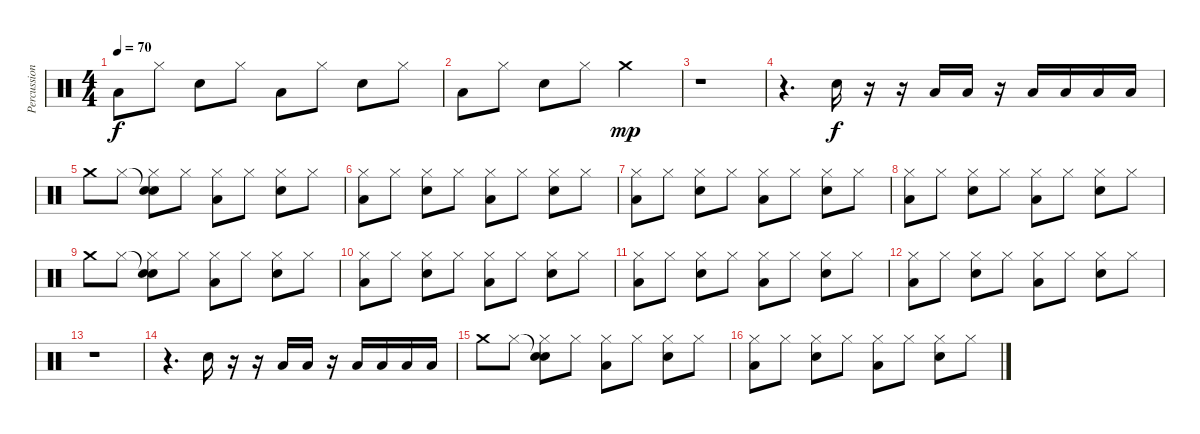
\track ("Percussion" "Percussion") {instrument percussion}
\staff {score}
\articulation defaults
\ts (4 4)
\tempo 70
\clef neutral
\ks c "Low Floor Tom (hit)".8{dy f} "Hi-Hat (closed)".8 "Snare (hit) 2".8 "Hi-Hat (closed)".8 "Low Floor Tom (hit)".8 "Hi-Hat (closed)".8 "Snare (hit) 2".8 "Hi-Hat (closed)".8
|
"Low Floor Tom (hit)".8 "Hi-Hat (closed)".8 "Snare (hit) 2".8 "Hi-Hat (closed)".8 "Crash medium (hit)".2{dy mp} |
r.1 |
r.4{d} "Snare (hit) 2".16{dy f} r.16 r.16 "Low Floor Tom (hit)".16 "Low Floor Tom (hit)".16 r.16 "Low Floor Tom (hit)".16 "Low Floor Tom (hit)".16 "Low Floor Tom (hit)".16 "Low Floor Tom (hit)".16 |
"Crash medium (hit)".8 "Hi-Hat (closed)".8 ("Snare (hit) 2"{t} "Hi-Hat (closed)" "Snare (hit) 2").8 "Hi-Hat (closed)".8 ("Hi-Hat (closed)" "Low Floor Tom (hit)").8 "Hi-Hat (closed)".8 ("Hi-Hat (closed)" "Snare (hit) 2").8 "Hi-Hat (closed)".8 |
("Low Floor Tom (hit)" "Hi-Hat (closed)").8 "Hi-Hat (closed)".8 ("Snare (hit) 2" "Hi-Hat (closed)").8 "Hi-Hat (closed)".8 ("Low Floor Tom (hit)" "Hi-Hat (closed)").8 "Hi-Hat (closed)".8 ("Snare (hit) 2" "Hi-Hat (closed)").8 "Hi-Hat (closed)".8 |
("Low Floor Tom (hit)" "Hi-Hat (closed)").8 "Hi-Hat (closed)".8 ("Snare (hit) 2" "Hi-Hat (closed)").8 "Hi-Hat (closed)".8 ("Low Floor Tom (hit)" "Hi-Hat (closed)").8 "Hi-Hat (closed)".8 ("Snare (hit) 2" "Hi-Hat (closed)").8 "Hi-Hat (closed)".8 |
("Low Floor Tom (hit)" "Hi-Hat (closed)").8 "Hi-Hat (closed)".8 ("Snare (hit) 2" "Hi-Hat (closed)").8 "Hi-Hat (closed)".8 ("Low Floor Tom (hit)" "Hi-Hat (closed)").8 "Hi-Hat (closed)".8 ("Snare (hit) 2" "Hi-Hat (closed)").8 "Hi-Hat (closed)".8 |
"Crash medium (hit)".8 "Hi-Hat (closed)".8 ("Snare (hit) 2"{t} "Hi-Hat (closed)" "Snare (hit) 2").8 "Hi-Hat (closed)".8 ("Hi-Hat (closed)" "Low Floor Tom (hit)").8 "Hi-Hat (closed)".8 ("Hi-Hat (closed)" "Snare (hit) 2").8 "Hi-Hat (closed)".8 |
("Low Floor Tom (hit)" "Hi-Hat (closed)").8 "Hi-Hat (closed)".8 ("Snare (hit) 2" "Hi-Hat (closed)").8 "Hi-Hat (closed)".8 ("Low Floor Tom (hit)" "Hi-Hat (closed)").8 "Hi-Hat (closed)".8 ("Snare (hit) 2" "Hi-Hat (closed)").8 "Hi-Hat (closed)".8 |
("Low Floor Tom (hit)" "Hi-Hat (closed)").8 "Hi-Hat (closed)".8 ("Snare (hit) 2" "Hi-Hat (closed)").8 "Hi-Hat (closed)".8 ("Low Floor Tom (hit)" "Hi-Hat (closed)").8 "Hi-Hat (closed)".8 ("Snare (hit) 2" "Hi-Hat (closed)").8 "Hi-Hat (closed)".8 |
("Low Floor Tom (hit)" "Hi-Hat (closed)").8 "Hi-Hat (closed)".8 ("Snare (hit) 2" "Hi-Hat (closed)").8 "Hi-Hat (closed)".8 ("Low Floor Tom (hit)" "Hi-Hat (closed)").8 "Hi-Hat (closed)".8 ("Snare (hit) 2" "Hi-Hat (closed)").8 "Hi-Hat (closed)".8 |
r.1 |
r.4{d} "Snare (hit) 2".16 r.16 r.16 "Low Floor Tom (hit)".16 "Low Floor Tom (hit)".16 r.16 "Low Floor Tom (hit)".16 "Low Floor Tom (hit)".16 "Low Floor Tom (hit)".16 "Low Floor Tom (hit)".16 |
"Crash medium (hit)".8 "Hi-Hat (closed)".8 ("Snare (hit) 2"{t} "Hi-Hat (closed)" "Snare (hit) 2").8 "Hi-Hat (closed)".8 ("Hi-Hat (closed)" "Low Floor Tom (hit)").8 "Hi-Hat (closed)".8 ("Hi-Hat (closed)" "Snare (hit) 2").8 "Hi-Hat (closed)".8 |
("Low Floor Tom (hit)" "Hi-Hat (closed)").8 "Hi-Hat (closed)".8 ("Snare (hit) 2" "Hi-Hat (closed)").8 "Hi-Hat (closed)".8 ("Low Floor Tom (hit)" "Hi-Hat (closed)").8 "Hi-Hat (closed)".8 ("Snare (hit) 2" "Hi-Hat (closed)").8 "Hi-Hat (closed)".8
